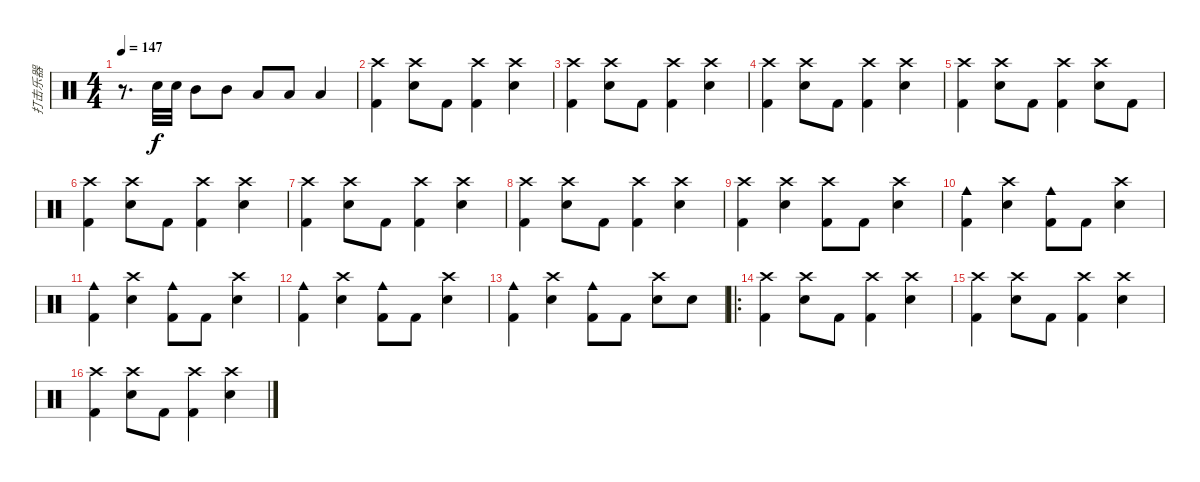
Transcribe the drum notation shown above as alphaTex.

\track ("打击乐器" "打击乐器") {instrument percussion}
\staff {score}
\articulation defaults
\ts (4 4)
\tempo 147
\clef neutral
\ks c
r.8{d dy f} "Snare (hit) 2".32 "Snare (hit) 2".32 "Mid Tom (hit)".8 "Mid Tom (hit)".8 "Low Tom (hit)".8 "Low Tom (hit)".8 "Low Floor Tom (hit)".4 |
("Crash high (hit)" "Kick (hit) 2").4 ("Crash high (hit)" "Snare (hit) 2").8 "Kick (hit) 2".8 ("Crash high (hit)" "Kick (hit) 2").4 ("Crash high (hit)" "Snare (hit) 2").4 |
("Crash high (hit)" "Kick (hit) 2").4 ("Crash high (hit)" "Snare (hit) 2").8 "Kick (hit) 2".8 ("Crash high (hit)" "Kick (hit) 2").4 ("Crash high (hit)" "Snare (hit) 2").4 |
("Crash high (hit)" "Kick (hit) 2").4 ("Crash high (hit)" "Snare (hit) 2").8 "Kick (hit) 2".8 ("Crash high (hit)" "Kick (hit) 2").4 ("Crash high (hit)" "Snare (hit) 2").4 |
("Crash high (hit)" "Kick (hit) 2").4 ("Crash high (hit)" "Snare (hit) 2").8 "Kick (hit) 2".8 ("Crash high (hit)" "Kick (hit) 2").4 ("Crash high (hit)" "Snare (hit) 2").8 "Kick (hit) 2".8 |
("Crash high (hit)" "Kick (hit) 2").4 ("Crash high (hit)" "Snare (hit) 2").8 "Kick (hit) 2".8 ("Crash high (hit)" "Kick (hit) 2").4 ("Crash high (hit)" "Snare (hit) 2").4 |
("Crash high (hit)" "Kick (hit) 2").4 ("Crash high (hit)" "Snare (hit) 2").8 "Kick (hit) 2".8 ("Crash high (hit)" "Kick (hit) 2").4 ("Crash high (hit)" "Snare (hit) 2").4 |
("Crash high (hit)" "Kick (hit) 2").4 ("Crash high (hit)" "Snare (hit) 2").8 "Kick (hit) 2".8 ("Crash high (hit)" "Kick (hit) 2").4 ("Crash high (hit)" "Snare (hit) 2").4 |
("Crash high (hit)" "Kick (hit) 2").4 ("Crash high (hit)" "Snare (hit) 2").4 ("Crash high (hit)" "Kick (hit) 2").8 "Kick (hit) 2".8 ("Crash high (hit)" "Snare (hit) 2").4 |
("Cowbell medium (hit)" "Kick (hit) 2").4 ("Crash high (hit)" "Snare (hit) 2").4 ("Cowbell medium (hit)" "Kick (hit) 2").8 "Kick (hit) 2".8 ("Crash high (hit)" "Snare (hit) 2").4 |
("Cowbell medium (hit)" "Kick (hit) 2").4 ("Crash high (hit)" "Snare (hit) 2").4 ("Cowbell medium (hit)" "Kick (hit) 2").8 "Kick (hit) 2".8 ("Crash high (hit)" "Snare (hit) 2").4 |
("Cowbell medium (hit)" "Kick (hit) 2").4 ("Crash high (hit)" "Snare (hit) 2").4 ("Cowbell medium (hit)" "Kick (hit) 2").8 "Kick (hit) 2".8 ("Crash high (hit)" "Snare (hit) 2").4 |
("Cowbell medium (hit)" "Kick (hit) 2").4 ("Crash high (hit)" "Snare (hit) 2").4 ("Cowbell medium (hit)" "Kick (hit) 2").8 "Kick (hit) 2".8 ("Crash high (hit)" "Snare (hit) 2").8 "Snare (hit) 2".8 |
\ro
("Crash high (hit)" "Kick (hit) 2").4 ("Crash high (hit)" "Snare (hit) 2").8 "Kick (hit) 2".8 ("Crash high (hit)" "Kick (hit) 2").4 ("Crash high (hit)" "Snare (hit) 2").4 |
("Crash high (hit)" "Kick (hit) 2").4 ("Crash high (hit)" "Snare (hit) 2").8 "Kick (hit) 2".8 ("Crash high (hit)" "Kick (hit) 2").4 ("Crash high (hit)" "Snare (hit) 2").4 |
("Crash high (hit)" "Kick (hit) 2").4 ("Crash high (hit)" "Snare (hit) 2").8 "Kick (hit) 2".8 ("Crash high (hit)" "Kick (hit) 2").4 ("Crash high (hit)" "Snare (hit) 2").4
